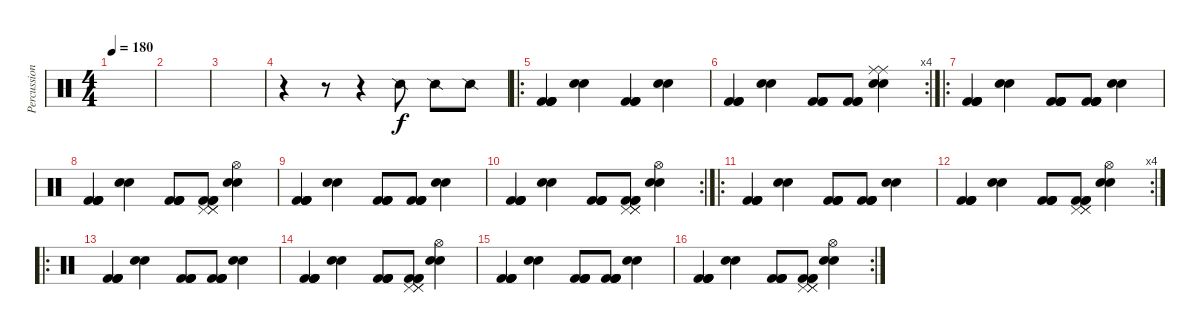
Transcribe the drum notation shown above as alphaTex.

\track ("Percussions" "Percussion") {instrument percussion}
\staff {score}
\articulation defaults
\ts (4 4)
\tempo 180
\clef neutral
\ks c
|
|
|
r.4 r.8 r.4 "Snare (side stick) 2".8 "Snare (side stick) 2".8 "Snare (side stick) 2".8 |
\ro
("Kick (hit) 2" "Kick (hit) 2" "Kick (hit) 2" "Kick (hit) 2").4 ("Electric Snare (hit)" "Electric Snare (hit)").4 ("Kick (hit) 2" "Kick (hit) 2" "Kick (hit) 2").4 ("Electric Snare (hit)" "Electric Snare (hit)").4 |
\rc 4
("Kick (hit) 2" "Kick (hit) 2" "Kick (hit) 2").4 ("Electric Snare (hit)" "Electric Snare (hit)").4 ("Kick (hit) 2" "Kick (hit) 2" "Kick (hit) 2").8 ("Kick (hit) 2" "Kick (hit) 2" "Kick (hit) 2").8 ("Electric Snare (hit)" "Electric Snare (hit)" "Ride (middle)" "Ride (middle)").4 |
\ro
("Kick (hit) 2" "Kick (hit) 2" "Kick (hit) 2" "Kick (hit) 2").4 ("Electric Snare (hit)" "Electric Snare (hit)").4 ("Kick (hit) 2" "Kick (hit) 2" "Kick (hit) 2" "Kick (hit) 2").8 ("Kick (hit) 2" "Kick (hit) 2" "Kick (hit) 2" "Kick (hit) 2").8 ("Electric Snare (hit)" "Electric Snare (hit)").4 |
("Kick (hit) 2" "Kick (hit) 2" "Kick (hit) 2" "Kick (hit) 2").4 ("Electric Snare (hit)" "Electric Snare (hit)").4 ("Kick (hit) 2" "Kick (hit) 2" "Kick (hit) 2" "Kick (hit) 2").8 ("Kick (hit) 2" "Kick (hit) 2" "Kick (hit) 2" "Pedal Hi-Hat (hit)" "Pedal Hi-Hat (hit)" "Pedal Hi-Hat (hit)").8 ("Electric Snare (hit)" "Electric Snare (hit)" "Hi-Hat (open)").4 |
("Kick (hit) 2" "Kick (hit) 2" "Kick (hit) 2" "Kick (hit) 2").4 ("Electric Snare (hit)" "Electric Snare (hit)").4 ("Kick (hit) 2" "Kick (hit) 2" "Kick (hit) 2" "Kick (hit) 2").8 ("Kick (hit) 2" "Kick (hit) 2" "Kick (hit) 2" "Kick (hit) 2").8 ("Electric Snare (hit)" "Electric Snare (hit)").4 |
\rc 2
("Kick (hit) 2" "Kick (hit) 2" "Kick (hit) 2" "Kick (hit) 2").4 ("Electric Snare (hit)" "Electric Snare (hit)").4 ("Kick (hit) 2" "Kick (hit) 2" "Kick (hit) 2" "Kick (hit) 2").8 ("Kick (hit) 2" "Kick (hit) 2" "Kick (hit) 2" "Pedal Hi-Hat (hit)" "Pedal Hi-Hat (hit)" "Pedal Hi-Hat (hit)").8 ("Electric Snare (hit)" "Electric Snare (hit)" "Hi-Hat (open)").4 |
\ro
("Kick (hit) 2" "Kick (hit) 2" "Kick (hit) 2" "Kick (hit) 2").4 ("Electric Snare (hit)" "Electric Snare (hit)").4 ("Kick (hit) 2" "Kick (hit) 2" "Kick (hit) 2" "Kick (hit) 2").8 ("Kick (hit) 2" "Kick (hit) 2" "Kick (hit) 2" "Kick (hit) 2").8 ("Electric Snare (hit)" "Electric Snare (hit)").4 |
\rc 4
("Kick (hit) 2" "Kick (hit) 2" "Kick (hit) 2" "Kick (hit) 2").4 ("Electric Snare (hit)" "Electric Snare (hit)").4 ("Kick (hit) 2" "Kick (hit) 2" "Kick (hit) 2" "Kick (hit) 2").8 ("Kick (hit) 2" "Kick (hit) 2" "Kick (hit) 2" "Pedal Hi-Hat (hit)" "Pedal Hi-Hat (hit)" "Pedal Hi-Hat (hit)").8 ("Electric Snare (hit)" "Electric Snare (hit)" "Hi-Hat (open)").4 |
\ro
("Kick (hit) 2" "Kick (hit) 2" "Kick (hit) 2" "Kick (hit) 2").4 ("Electric Snare (hit)" "Electric Snare (hit)").4 ("Kick (hit) 2" "Kick (hit) 2" "Kick (hit) 2" "Kick (hit) 2").8 ("Kick (hit) 2" "Kick (hit) 2" "Kick (hit) 2" "Kick (hit) 2").8 ("Electric Snare (hit)" "Electric Snare (hit)").4 |
("Kick (hit) 2" "Kick (hit) 2" "Kick (hit) 2" "Kick (hit) 2").4 ("Electric Snare (hit)" "Electric Snare (hit)").4 ("Kick (hit) 2" "Kick (hit) 2" "Kick (hit) 2" "Kick (hit) 2").8 ("Kick (hit) 2" "Kick (hit) 2" "Kick (hit) 2" "Pedal Hi-Hat (hit)" "Pedal Hi-Hat (hit)" "Pedal Hi-Hat (hit)").8 ("Electric Snare (hit)" "Electric Snare (hit)" "Hi-Hat (open)").4 |
("Kick (hit) 2" "Kick (hit) 2" "Kick (hit) 2" "Kick (hit) 2").4 ("Electric Snare (hit)" "Electric Snare (hit)").4 ("Kick (hit) 2" "Kick (hit) 2" "Kick (hit) 2" "Kick (hit) 2").8 ("Kick (hit) 2" "Kick (hit) 2" "Kick (hit) 2" "Kick (hit) 2").8 ("Electric Snare (hit)" "Electric Snare (hit)").4 |
\rc 2
("Kick (hit) 2" "Kick (hit) 2" "Kick (hit) 2" "Kick (hit) 2").4 ("Electric Snare (hit)" "Electric Snare (hit)").4 ("Kick (hit) 2" "Kick (hit) 2" "Kick (hit) 2" "Kick (hit) 2").8 ("Kick (hit) 2" "Kick (hit) 2" "Kick (hit) 2" "Pedal Hi-Hat (hit)" "Pedal Hi-Hat (hit)" "Pedal Hi-Hat (hit)").8 ("Electric Snare (hit)" "Electric Snare (hit)" "Hi-Hat (open)").4
